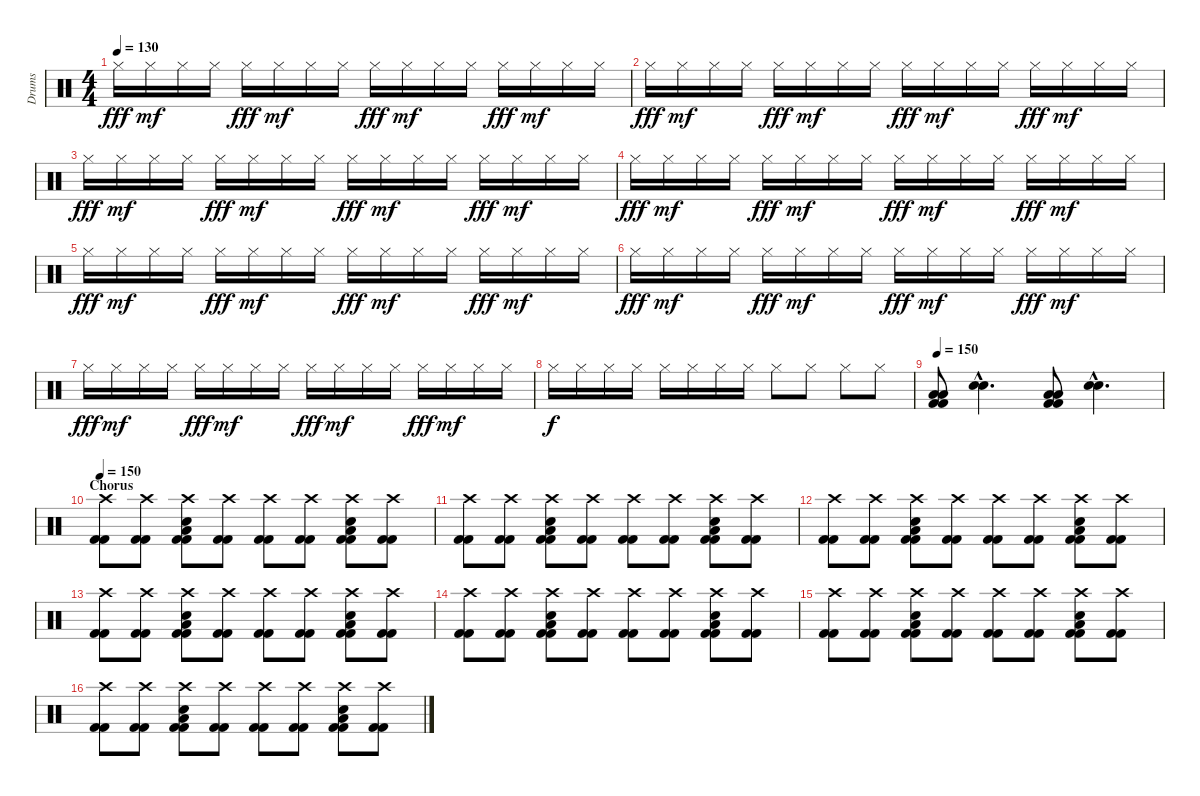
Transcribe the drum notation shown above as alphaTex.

\track ("Drums" "Drums") {instrument percussion}
\staff {score}
\articulation defaults
\ts (4 4)
\tempo 130
\clef neutral
\ks c "Hi-Hat (closed)".16{dy fff} "Hi-Hat (closed)".16{dy mf} "Hi-Hat (closed)".16 "Hi-Hat (closed)".16 "Hi-Hat (closed)".16{dy fff} "Hi-Hat (closed)".16{dy mf} "Hi-Hat (closed)".16 "Hi-Hat (closed)".16 "Hi-Hat (closed)".16{dy fff} "Hi-Hat (closed)".16{dy mf} "Hi-Hat (closed)".16 "Hi-Hat (closed)".16 "Hi-Hat (closed)".16{dy fff} "Hi-Hat (closed)".16{dy mf} "Hi-Hat (closed)".16 "Hi-Hat (closed)".16
|
"Hi-Hat (closed)".16{dy fff} "Hi-Hat (closed)".16{dy mf} "Hi-Hat (closed)".16 "Hi-Hat (closed)".16 "Hi-Hat (closed)".16{dy fff} "Hi-Hat (closed)".16{dy mf} "Hi-Hat (closed)".16 "Hi-Hat (closed)".16 "Hi-Hat (closed)".16{dy fff} "Hi-Hat (closed)".16{dy mf} "Hi-Hat (closed)".16 "Hi-Hat (closed)".16 "Hi-Hat (closed)".16{dy fff} "Hi-Hat (closed)".16{dy mf} "Hi-Hat (closed)".16 "Hi-Hat (closed)".16 |
"Hi-Hat (closed)".16{dy fff} "Hi-Hat (closed)".16{dy mf} "Hi-Hat (closed)".16 "Hi-Hat (closed)".16 "Hi-Hat (closed)".16{dy fff} "Hi-Hat (closed)".16{dy mf} "Hi-Hat (closed)".16 "Hi-Hat (closed)".16 "Hi-Hat (closed)".16{dy fff} "Hi-Hat (closed)".16{dy mf} "Hi-Hat (closed)".16 "Hi-Hat (closed)".16 "Hi-Hat (closed)".16{dy fff} "Hi-Hat (closed)".16{dy mf} "Hi-Hat (closed)".16 "Hi-Hat (closed)".16 |
"Hi-Hat (closed)".16{dy fff} "Hi-Hat (closed)".16{dy mf} "Hi-Hat (closed)".16 "Hi-Hat (closed)".16 "Hi-Hat (closed)".16{dy fff} "Hi-Hat (closed)".16{dy mf} "Hi-Hat (closed)".16 "Hi-Hat (closed)".16 "Hi-Hat (closed)".16{dy fff} "Hi-Hat (closed)".16{dy mf} "Hi-Hat (closed)".16 "Hi-Hat (closed)".16 "Hi-Hat (closed)".16{dy fff} "Hi-Hat (closed)".16{dy mf} "Hi-Hat (closed)".16 "Hi-Hat (closed)".16 |
"Hi-Hat (closed)".16{dy fff} "Hi-Hat (closed)".16{dy mf} "Hi-Hat (closed)".16 "Hi-Hat (closed)".16 "Hi-Hat (closed)".16{dy fff} "Hi-Hat (closed)".16{dy mf} "Hi-Hat (closed)".16 "Hi-Hat (closed)".16 "Hi-Hat (closed)".16{dy fff} "Hi-Hat (closed)".16{dy mf} "Hi-Hat (closed)".16 "Hi-Hat (closed)".16 "Hi-Hat (closed)".16{dy fff} "Hi-Hat (closed)".16{dy mf} "Hi-Hat (closed)".16 "Hi-Hat (closed)".16 |
"Hi-Hat (closed)".16{dy fff} "Hi-Hat (closed)".16{dy mf} "Hi-Hat (closed)".16 "Hi-Hat (closed)".16 "Hi-Hat (closed)".16{dy fff} "Hi-Hat (closed)".16{dy mf} "Hi-Hat (closed)".16 "Hi-Hat (closed)".16 "Hi-Hat (closed)".16{dy fff} "Hi-Hat (closed)".16{dy mf} "Hi-Hat (closed)".16 "Hi-Hat (closed)".16 "Hi-Hat (closed)".16{dy fff} "Hi-Hat (closed)".16{dy mf} "Hi-Hat (closed)".16 "Hi-Hat (closed)".16 |
"Hi-Hat (closed)".16{dy fff} "Hi-Hat (closed)".16{dy mf} "Hi-Hat (closed)".16 "Hi-Hat (closed)".16 "Hi-Hat (closed)".16{dy fff} "Hi-Hat (closed)".16{dy mf} "Hi-Hat (closed)".16 "Hi-Hat (closed)".16 "Hi-Hat (closed)".16{dy fff} "Hi-Hat (closed)".16{dy mf} "Hi-Hat (closed)".16 "Hi-Hat (closed)".16 "Hi-Hat (closed)".16{dy fff} "Hi-Hat (closed)".16{dy mf} "Hi-Hat (closed)".16 "Hi-Hat (closed)".16 |
"Hi-Hat (closed)".16{dy f} "Hi-Hat (closed)".16 "Hi-Hat (closed)".16 "Hi-Hat (closed)".16 "Hi-Hat (closed)".16 "Hi-Hat (closed)".16 "Hi-Hat (closed)".16 "Hi-Hat (closed)".16 "Hi-Hat (closed)".8 "Hi-Hat (closed)".8 "Hi-Hat (closed)".8 "Hi-Hat (closed)".8 |
\tempo 150
("Low Tom (hit)" "Low Tom (hit)" "Kick (hit) 2" "Kick (hit) 2").8 ("Snare (hit) 2"{hac} "Snare (hit) 2"{hac}).4{d} ("Low Tom (hit)" "Low Tom (hit)" "Kick (hit) 2" "Kick (hit) 2").8 ("Snare (hit) 2"{hac} "Snare (hit) 2"{hac}).4{d} |
\section ("" "Chorus")
\tempo 150
("Crash high (hit)" "Kick (hit) 2" "Kick (hit) 2").8 ("Crash high (hit)" "Kick (hit) 2" "Kick (hit) 2").8 ("Crash high (hit)" "Low Tom (hit)" "Snare (hit) 2" "Kick (hit) 2" "Kick (hit) 2").8 ("Crash high (hit)" "Kick (hit) 2" "Kick (hit) 2").8 ("Crash high (hit)" "Kick (hit) 2" "Kick (hit) 2").8 ("Crash high (hit)" "Kick (hit) 2" "Kick (hit) 2").8 ("Crash high (hit)" "Low Tom (hit)" "Snare (hit) 2" "Kick (hit) 2" "Kick (hit) 2").8 ("Crash high (hit)" "Kick (hit) 2" "Kick (hit) 2").8 |
("Crash high (hit)" "Kick (hit) 2" "Kick (hit) 2").8 ("Crash high (hit)" "Kick (hit) 2" "Kick (hit) 2").8 ("Crash high (hit)" "Low Tom (hit)" "Snare (hit) 2" "Kick (hit) 2" "Kick (hit) 2").8 ("Crash high (hit)" "Kick (hit) 2" "Kick (hit) 2").8 ("Crash high (hit)" "Kick (hit) 2" "Kick (hit) 2").8 ("Crash high (hit)" "Kick (hit) 2" "Kick (hit) 2").8 ("Crash high (hit)" "Low Tom (hit)" "Snare (hit) 2" "Kick (hit) 2" "Kick (hit) 2").8 ("Crash high (hit)" "Kick (hit) 2" "Kick (hit) 2").8 |
("Crash high (hit)" "Kick (hit) 2" "Kick (hit) 2").8 ("Crash high (hit)" "Kick (hit) 2" "Kick (hit) 2").8 ("Crash high (hit)" "Low Tom (hit)" "Snare (hit) 2" "Kick (hit) 2" "Kick (hit) 2").8 ("Crash high (hit)" "Kick (hit) 2" "Kick (hit) 2").8 ("Crash high (hit)" "Kick (hit) 2" "Kick (hit) 2").8 ("Crash high (hit)" "Kick (hit) 2" "Kick (hit) 2").8 ("Crash high (hit)" "Low Tom (hit)" "Snare (hit) 2" "Kick (hit) 2" "Kick (hit) 2").8 ("Crash high (hit)" "Kick (hit) 2" "Kick (hit) 2").8 |
("Crash high (hit)" "Kick (hit) 2" "Kick (hit) 2").8 ("Crash high (hit)" "Kick (hit) 2" "Kick (hit) 2").8 ("Crash high (hit)" "Low Tom (hit)" "Snare (hit) 2" "Kick (hit) 2" "Kick (hit) 2").8 ("Crash high (hit)" "Kick (hit) 2" "Kick (hit) 2").8 ("Crash high (hit)" "Kick (hit) 2" "Kick (hit) 2").8 ("Crash high (hit)" "Kick (hit) 2" "Kick (hit) 2").8 ("Crash high (hit)" "Low Tom (hit)" "Snare (hit) 2" "Kick (hit) 2" "Kick (hit) 2").8 ("Crash high (hit)" "Kick (hit) 2" "Kick (hit) 2").8 |
("Crash high (hit)" "Kick (hit) 2" "Kick (hit) 2").8 ("Crash high (hit)" "Kick (hit) 2" "Kick (hit) 2").8 ("Crash high (hit)" "Low Tom (hit)" "Snare (hit) 2" "Kick (hit) 2" "Kick (hit) 2").8 ("Crash high (hit)" "Kick (hit) 2" "Kick (hit) 2").8 ("Crash high (hit)" "Kick (hit) 2" "Kick (hit) 2").8 ("Crash high (hit)" "Kick (hit) 2" "Kick (hit) 2").8 ("Crash high (hit)" "Low Tom (hit)" "Snare (hit) 2" "Kick (hit) 2" "Kick (hit) 2").8 ("Crash high (hit)" "Kick (hit) 2" "Kick (hit) 2").8 |
("Crash high (hit)" "Kick (hit) 2" "Kick (hit) 2").8 ("Crash high (hit)" "Kick (hit) 2" "Kick (hit) 2").8 ("Crash high (hit)" "Low Tom (hit)" "Snare (hit) 2" "Kick (hit) 2" "Kick (hit) 2").8 ("Crash high (hit)" "Kick (hit) 2" "Kick (hit) 2").8 ("Crash high (hit)" "Kick (hit) 2" "Kick (hit) 2").8 ("Crash high (hit)" "Kick (hit) 2" "Kick (hit) 2").8 ("Crash high (hit)" "Low Tom (hit)" "Snare (hit) 2" "Kick (hit) 2" "Kick (hit) 2").8 ("Crash high (hit)" "Kick (hit) 2" "Kick (hit) 2").8 |
("Crash high (hit)" "Kick (hit) 2" "Kick (hit) 2").8 ("Crash high (hit)" "Kick (hit) 2" "Kick (hit) 2").8 ("Crash high (hit)" "Low Tom (hit)" "Snare (hit) 2" "Kick (hit) 2" "Kick (hit) 2").8 ("Crash high (hit)" "Kick (hit) 2" "Kick (hit) 2").8 ("Crash high (hit)" "Kick (hit) 2" "Kick (hit) 2").8 ("Crash high (hit)" "Kick (hit) 2" "Kick (hit) 2").8 ("Crash high (hit)" "Low Tom (hit)" "Snare (hit) 2" "Kick (hit) 2" "Kick (hit) 2").8 ("Crash high (hit)" "Kick (hit) 2" "Kick (hit) 2").8
